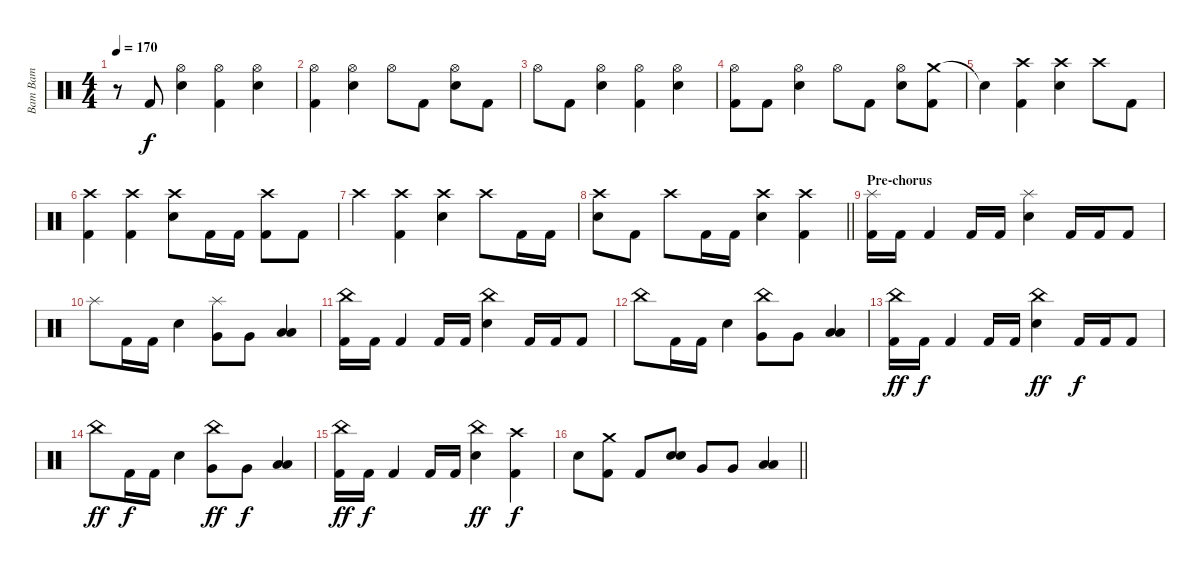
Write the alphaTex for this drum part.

\track ("Bam Bam" "Bam Bam") {instrument percussion}
\staff {score}
\articulation defaults
\ts (4 4)
\tempo 170
\clef neutral
\ks c
r.8{dy f} "Kick (hit) 2".8 ("Hi-Hat (open)" "Electric Snare (hit)").4 ("Hi-Hat (open)" "Kick (hit) 2").4 ("Hi-Hat (open)" "Electric Snare (hit)").4 |
("Hi-Hat (open)" "Kick (hit) 2").4 ("Hi-Hat (open)" "Electric Snare (hit)").4 "Hi-Hat (open)".8 "Kick (hit) 2".8 ("Hi-Hat (open)" "Electric Snare (hit)").8 "Kick (hit) 2".8 |
"Hi-Hat (open)".8 "Kick (hit) 2".8 ("Hi-Hat (open)" "Electric Snare (hit)").4 ("Hi-Hat (open)" "Kick (hit) 2").4 ("Hi-Hat (open)" "Electric Snare (hit)").4 |
("Hi-Hat (open)" "Kick (hit) 2").8 "Kick (hit) 2".8 ("Hi-Hat (open)" "Electric Snare (hit)").4 "Hi-Hat (open)".8 "Kick (hit) 2".8 ("Hi-Hat (open)" "Electric Snare (hit)").8 ("Crash medium (hit)" "Kick (hit) 2").8 |
"Snare (hit)"{t}.4 ("Crash high (hit)" "Kick (hit) 2").4 ("Crash high (hit)" "Electric Snare (hit)").4 "Crash high (hit)".8 "Kick (hit) 2".8 |
("Crash high (hit)" "Kick (hit) 2").4 ("Crash high (hit)" "Kick (hit) 2").4 ("Crash high (hit)" "Electric Snare (hit)").8 "Kick (hit) 2".16 "Kick (hit) 2".16 ("Crash high (hit)" "Kick (hit) 2").8 "Kick (hit) 2".8 |
"Crash high (hit)".4 ("Crash high (hit)" "Kick (hit) 2").4 ("Crash high (hit)" "Electric Snare (hit)").4 "Crash high (hit)".8 "Kick (hit) 2".16 "Kick (hit) 2".16 |
\barLineRight lightlight
("Crash high (hit)" "Electric Snare (hit)").8 "Kick (hit) 2".8 "Crash high (hit)".8 "Kick (hit) 2".16 "Kick (hit) 2".16 ("Crash high (hit)" "Electric Snare (hit)").4 ("Crash high (hit)" "Kick (hit) 2").4 |
\section ("" "Pre-chorus")
("Splash (hit)" "Kick (hit) 2").16 "Kick (hit) 2".16 "Kick (hit) 2".4 "Kick (hit) 2".16 "Kick (hit) 2".16 ("Splash (hit)" "Electric Snare (hit)").4 "Kick (hit) 2".16 "Kick (hit) 2".16 "Kick (hit) 2".8 |
"Splash (hit)".8 "Kick (hit) 2".16 "Kick (hit) 2".16 "Electric Snare (hit)".4 ("Splash (hit)" "Very Low Tom (hit)").8 "Very Low Tom (hit)".8 ("Low Floor Tom (hit)" "Low Floor Tom (hit)").4 |
("China (hit)" "Kick (hit) 2").16 "Kick (hit) 2".16 "Kick (hit) 2".4 "Kick (hit) 2".16 "Kick (hit) 2".16 ("China (hit)" "Electric Snare (hit)").4 "Kick (hit) 2".16 "Kick (hit) 2".16 "Kick (hit) 2".8 |
"China (hit)".8 "Kick (hit) 2".16 "Kick (hit) 2".16 "Electric Snare (hit)".4 ("China (hit)" "Very Low Tom (hit)").8 "Very Low Tom (hit)".8 ("Low Floor Tom (hit)" "Low Floor Tom (hit)").4 |
("China (hit)" "Kick (hit) 2").16{dy ff} "Kick (hit) 2".16{dy f} "Kick (hit) 2".4 "Kick (hit) 2".16 "Kick (hit) 2".16 ("China (hit)" "Electric Snare (hit)").4{dy ff} "Kick (hit) 2".16{dy f} "Kick (hit) 2".16 "Kick (hit) 2".8 |
"China (hit)".8{dy ff} "Kick (hit) 2".16{dy f} "Kick (hit) 2".16 "Electric Snare (hit)".4 ("China (hit)" "Very Low Tom (hit)").8{dy ff} "Very Low Tom (hit)".8{dy f} ("Low Floor Tom (hit)" "Low Floor Tom (hit)").4 |
("China (hit)" "Kick (hit) 2").16{dy ff} "Kick (hit) 2".16{dy f} "Kick (hit) 2".4 "Kick (hit) 2".16 "Kick (hit) 2".16 ("China (hit)" "Electric Snare (hit)").4{dy ff} ("Crash high (hit)" "Kick (hit) 2").4{dy f} |
\barLineRight lightlight "Electric Snare (hit)".8
("Crash medium (hit)" "Kick (hit) 2").8 "Kick (hit) 2".8 ("Electric Snare (hit)" "Electric Snare (hit)").8{bd 120} "Very Low Tom (hit)".8 "Very Low Tom (hit)".8 ("Low Floor Tom (hit)" "Low Floor Tom (hit)").4
